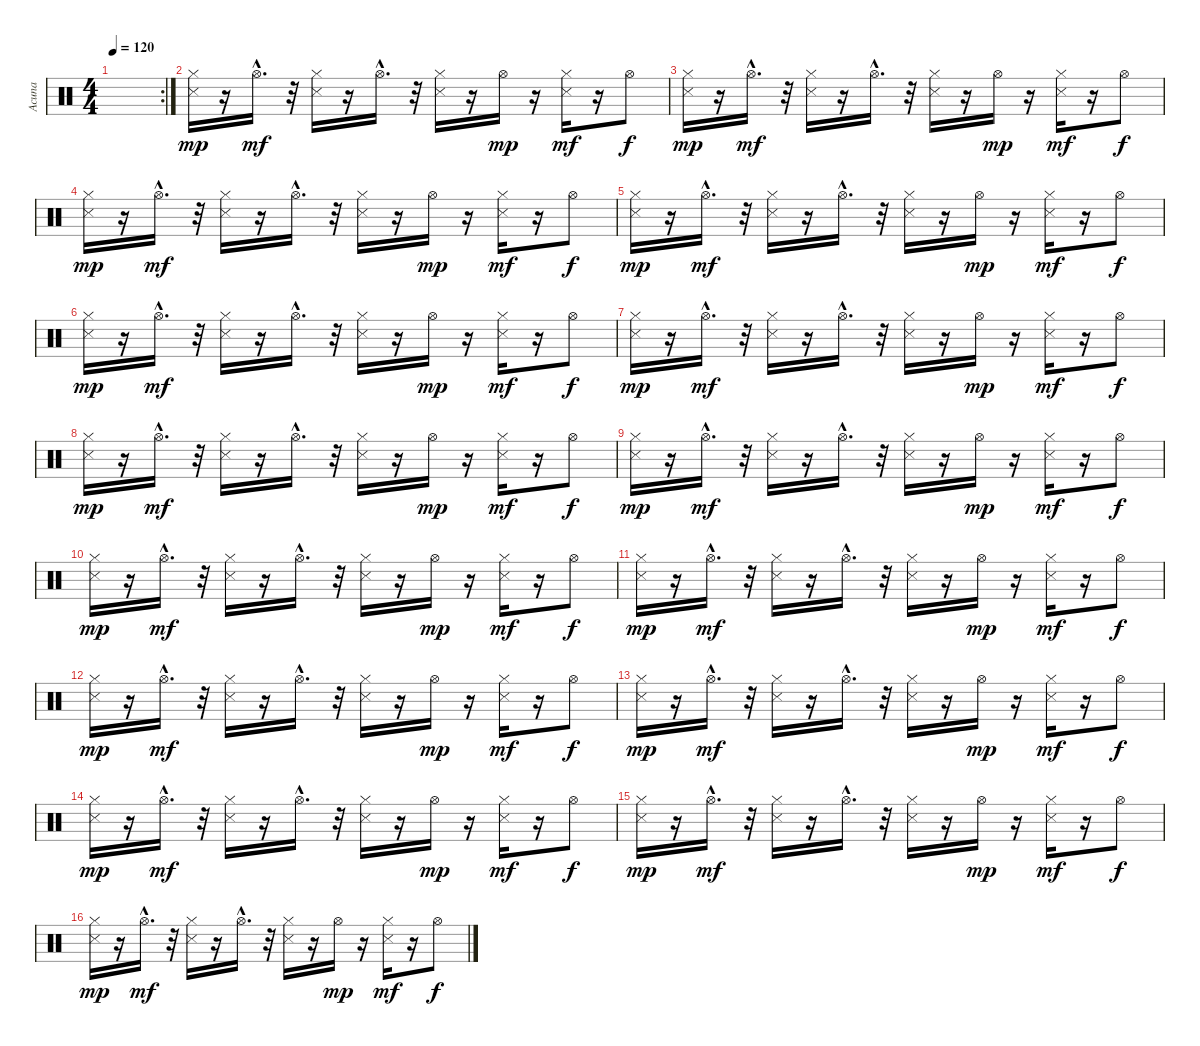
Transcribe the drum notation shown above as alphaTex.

\track ("Acuna" "Acuna") {instrument percussion}
\staff {score}
\articulation defaults
\rc 2
\ts (4 4)
\tempo 120
\clef neutral
\ks c
|
("Snare (side stick) 3" "Hi-Hat (closed)").16{dy mp} r.16 "Hi-Hat (open)"{hac}.16{d dy mf} r.32 ("Snare (side stick) 3" "Hi-Hat (closed)").16 r.16 "Hi-Hat (open)"{hac}.16{d} r.32 ("Snare (side stick) 3" "Hi-Hat (closed)").16 r.16 "Hi-Hat (open)".16{dy mp} r.16 ("Snare (side stick) 3" "Hi-Hat (closed)").16{dy mf} r.16 "Hi-Hat (open)".8{dy f} |
("Snare (side stick) 3" "Hi-Hat (closed)").16{dy mp} r.16 "Hi-Hat (open)"{hac}.16{d dy mf} r.32 ("Snare (side stick) 3" "Hi-Hat (closed)").16 r.16 "Hi-Hat (open)"{hac}.16{d} r.32 ("Snare (side stick) 3" "Hi-Hat (closed)").16 r.16 "Hi-Hat (open)".16{dy mp} r.16 ("Snare (side stick) 3" "Hi-Hat (closed)").16{dy mf} r.16 "Hi-Hat (open)".8{dy f} |
("Snare (side stick) 3" "Hi-Hat (closed)").16{dy mp} r.16 "Hi-Hat (open)"{hac}.16{d dy mf} r.32 ("Snare (side stick) 3" "Hi-Hat (closed)").16 r.16 "Hi-Hat (open)"{hac}.16{d} r.32 ("Snare (side stick) 3" "Hi-Hat (closed)").16 r.16 "Hi-Hat (open)".16{dy mp} r.16 ("Snare (side stick) 3" "Hi-Hat (closed)").16{dy mf} r.16 "Hi-Hat (open)".8{dy f} |
("Snare (side stick) 3" "Hi-Hat (closed)").16{dy mp} r.16 "Hi-Hat (open)"{hac}.16{d dy mf} r.32 ("Snare (side stick) 3" "Hi-Hat (closed)").16 r.16 "Hi-Hat (open)"{hac}.16{d} r.32 ("Snare (side stick) 3" "Hi-Hat (closed)").16 r.16 "Hi-Hat (open)".16{dy mp} r.16 ("Snare (side stick) 3" "Hi-Hat (closed)").16{dy mf} r.16 "Hi-Hat (open)".8{dy f} |
("Snare (side stick) 3" "Hi-Hat (closed)").16{dy mp} r.16 "Hi-Hat (open)"{hac}.16{d dy mf} r.32 ("Snare (side stick) 3" "Hi-Hat (closed)").16 r.16 "Hi-Hat (open)"{hac}.16{d} r.32 ("Snare (side stick) 3" "Hi-Hat (closed)").16 r.16 "Hi-Hat (open)".16{dy mp} r.16 ("Snare (side stick) 3" "Hi-Hat (closed)").16{dy mf} r.16 "Hi-Hat (open)".8{dy f} |
("Snare (side stick) 3" "Hi-Hat (closed)").16{dy mp} r.16 "Hi-Hat (open)"{hac}.16{d dy mf} r.32 ("Snare (side stick) 3" "Hi-Hat (closed)").16 r.16 "Hi-Hat (open)"{hac}.16{d} r.32 ("Snare (side stick) 3" "Hi-Hat (closed)").16 r.16 "Hi-Hat (open)".16{dy mp} r.16 ("Snare (side stick) 3" "Hi-Hat (closed)").16{dy mf} r.16 "Hi-Hat (open)".8{dy f} |
("Snare (side stick) 3" "Hi-Hat (closed)").16{dy mp} r.16 "Hi-Hat (open)"{hac}.16{d dy mf} r.32 ("Snare (side stick) 3" "Hi-Hat (closed)").16 r.16 "Hi-Hat (open)"{hac}.16{d} r.32 ("Snare (side stick) 3" "Hi-Hat (closed)").16 r.16 "Hi-Hat (open)".16{dy mp} r.16 ("Snare (side stick) 3" "Hi-Hat (closed)").16{dy mf} r.16 "Hi-Hat (open)".8{dy f} |
("Snare (side stick) 3" "Hi-Hat (closed)").16{dy mp} r.16 "Hi-Hat (open)"{hac}.16{d dy mf} r.32 ("Snare (side stick) 3" "Hi-Hat (closed)").16 r.16 "Hi-Hat (open)"{hac}.16{d} r.32 ("Snare (side stick) 3" "Hi-Hat (closed)").16 r.16 "Hi-Hat (open)".16{dy mp} r.16 ("Snare (side stick) 3" "Hi-Hat (closed)").16{dy mf} r.16 "Hi-Hat (open)".8{dy f} |
("Snare (side stick) 3" "Hi-Hat (closed)").16{dy mp} r.16 "Hi-Hat (open)"{hac}.16{d dy mf} r.32 ("Snare (side stick) 3" "Hi-Hat (closed)").16 r.16 "Hi-Hat (open)"{hac}.16{d} r.32 ("Snare (side stick) 3" "Hi-Hat (closed)").16 r.16 "Hi-Hat (open)".16{dy mp} r.16 ("Snare (side stick) 3" "Hi-Hat (closed)").16{dy mf} r.16 "Hi-Hat (open)".8{dy f} |
("Snare (side stick) 3" "Hi-Hat (closed)").16{dy mp} r.16 "Hi-Hat (open)"{hac}.16{d dy mf} r.32 ("Snare (side stick) 3" "Hi-Hat (closed)").16 r.16 "Hi-Hat (open)"{hac}.16{d} r.32 ("Snare (side stick) 3" "Hi-Hat (closed)").16 r.16 "Hi-Hat (open)".16{dy mp} r.16 ("Snare (side stick) 3" "Hi-Hat (closed)").16{dy mf} r.16 "Hi-Hat (open)".8{dy f} |
("Snare (side stick) 3" "Hi-Hat (closed)").16{dy mp} r.16 "Hi-Hat (open)"{hac}.16{d dy mf} r.32 ("Snare (side stick) 3" "Hi-Hat (closed)").16 r.16 "Hi-Hat (open)"{hac}.16{d} r.32 ("Snare (side stick) 3" "Hi-Hat (closed)").16 r.16 "Hi-Hat (open)".16{dy mp} r.16 ("Snare (side stick) 3" "Hi-Hat (closed)").16{dy mf} r.16 "Hi-Hat (open)".8{dy f} |
("Snare (side stick) 3" "Hi-Hat (closed)").16{dy mp} r.16 "Hi-Hat (open)"{hac}.16{d dy mf} r.32 ("Snare (side stick) 3" "Hi-Hat (closed)").16 r.16 "Hi-Hat (open)"{hac}.16{d} r.32 ("Snare (side stick) 3" "Hi-Hat (closed)").16 r.16 "Hi-Hat (open)".16{dy mp} r.16 ("Snare (side stick) 3" "Hi-Hat (closed)").16{dy mf} r.16 "Hi-Hat (open)".8{dy f} |
("Snare (side stick) 3" "Hi-Hat (closed)").16{dy mp} r.16 "Hi-Hat (open)"{hac}.16{d dy mf} r.32 ("Snare (side stick) 3" "Hi-Hat (closed)").16 r.16 "Hi-Hat (open)"{hac}.16{d} r.32 ("Snare (side stick) 3" "Hi-Hat (closed)").16 r.16 "Hi-Hat (open)".16{dy mp} r.16 ("Snare (side stick) 3" "Hi-Hat (closed)").16{dy mf} r.16 "Hi-Hat (open)".8{dy f} |
("Snare (side stick) 3" "Hi-Hat (closed)").16{dy mp} r.16 "Hi-Hat (open)"{hac}.16{d dy mf} r.32 ("Snare (side stick) 3" "Hi-Hat (closed)").16 r.16 "Hi-Hat (open)"{hac}.16{d} r.32 ("Snare (side stick) 3" "Hi-Hat (closed)").16 r.16 "Hi-Hat (open)".16{dy mp} r.16 ("Snare (side stick) 3" "Hi-Hat (closed)").16{dy mf} r.16 "Hi-Hat (open)".8{dy f} |
("Snare (side stick) 3" "Hi-Hat (closed)").16{dy mp} r.16 "Hi-Hat (open)"{hac}.16{d dy mf} r.32 ("Snare (side stick) 3" "Hi-Hat (closed)").16 r.16 "Hi-Hat (open)"{hac}.16{d} r.32 ("Snare (side stick) 3" "Hi-Hat (closed)").16 r.16 "Hi-Hat (open)".16{dy mp} r.16 ("Snare (side stick) 3" "Hi-Hat (closed)").16{dy mf} r.16 "Hi-Hat (open)".8{dy f}
